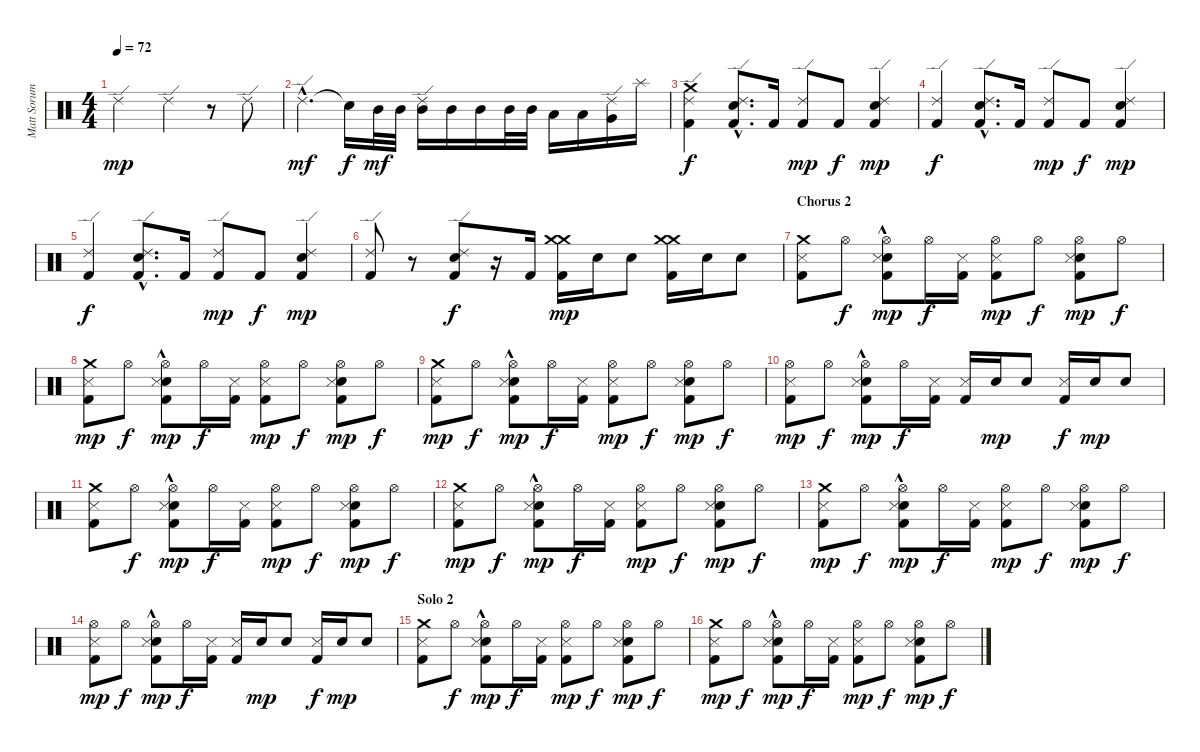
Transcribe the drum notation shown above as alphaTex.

\track ("Matt Sorum" "Matt Sorum") {instrument percussion}
\staff {score}
\articulation defaults
\ts (4 4)
\tempo 72
\clef neutral
\ks c "Ride (edge) 2".2{dy mp} "Ride (edge) 2".4
r.8 "Ride (edge) 2".8 |
"Ride (edge) 2"{hac}.4{d dy mf} "Snare (hit)"{t}.16{dy f} "Mid Tom (hit)".32{dy mf} "Mid Tom (hit)".32 ("Mid Tom (hit)" "Ride (edge) 2").16 "Mid Tom (hit)".16 "Mid Tom (hit)".16 "Mid Tom (hit)".32 "Mid Tom (hit)".32 "Low Tom (hit)".16 "Low Tom (hit)".16 ("Very Low Tom (hit)" "Ride (edge) 2").16 "Splash (hit)".16 |
("Ride (edge) 2" "Kick (hit) 2" "Crash medium (hit)").4{dy f} ("Snare (hit) 2"{hac} "Ride (edge) 2"{hac} "Kick (hit) 2"{hac}).8{d} "Kick (hit) 2".16 ("Ride (edge) 2" "Kick (hit) 2").8{dy mp} "Kick (hit) 2".8{dy f} ("Snare (hit) 2" "Ride (edge) 2" "Kick (hit) 2").4{dy mp} |
("Ride (edge) 2" "Kick (hit) 2").4{dy f} ("Snare (hit) 2"{hac} "Ride (edge) 2"{hac} "Kick (hit) 2"{hac}).8{d} "Kick (hit) 2".16 ("Ride (edge) 2" "Kick (hit) 2").8{dy mp} "Kick (hit) 2".8{dy f} ("Snare (hit) 2" "Ride (edge) 2" "Kick (hit) 2").4{dy mp} |
("Ride (edge) 2" "Kick (hit) 2").4{dy f} ("Snare (hit) 2"{hac} "Ride (edge) 2"{hac} "Kick (hit) 2"{hac}).8{d} "Kick (hit) 2".16 ("Ride (edge) 2" "Kick (hit) 2").8{dy mp} "Kick (hit) 2".8{dy f} ("Snare (hit) 2" "Ride (edge) 2" "Kick (hit) 2").4{dy mp} |
("Ride (edge) 2" "Kick (hit) 2").8 r.8 ("Snare (hit) 2" "Ride (edge) 2" "Kick (hit) 2").8{dy f} r.16 "Kick (hit) 2".16 ("Crash medium (hit)" "Kick (hit) 2" "Crash medium (hit)").16{dy mp} "Snare (hit) 2".16 "Snare (hit) 2".8 ("Crash medium (hit)" "Kick (hit) 2" "Crash medium (hit)").16 "Snare (hit) 2".16 "Snare (hit) 2".8 |
\section ("" "Chorus 2")
("Metronome (hit)" "Kick (hit) 2" "Crash medium (hit)").8 "Hi-Hat (open)".8{dy f} ("Snare (hit) 2" "Hi-Hat (open)" "Metronome (hit)"{hac} "Kick (hit) 2").8{dy mp} "Hi-Hat (open)".16{dy f} ("Metronome (hit)" "Kick (hit) 2").16 ("Hi-Hat (open)" "Metronome (hit)" "Kick (hit) 2").8{dy mp} "Hi-Hat (open)".8{dy f} ("Snare (hit) 2" "Hi-Hat (open)" "Metronome (hit)" "Kick (hit) 2").8{dy mp} "Hi-Hat (open)".8{dy f} |
("Metronome (hit)" "Kick (hit) 2" "Crash medium (hit)").8{dy mp} "Hi-Hat (open)".8{dy f} ("Snare (hit) 2" "Hi-Hat (open)" "Metronome (hit)"{hac} "Kick (hit) 2").8{dy mp} "Hi-Hat (open)".16{dy f} ("Metronome (hit)" "Kick (hit) 2").16 ("Hi-Hat (open)" "Metronome (hit)" "Kick (hit) 2").8{dy mp} "Hi-Hat (open)".8{dy f} ("Snare (hit) 2" "Hi-Hat (open)" "Metronome (hit)" "Kick (hit) 2").8{dy mp} "Hi-Hat (open)".8{dy f} |
("Metronome (hit)" "Kick (hit) 2" "Crash medium (hit)").8{dy mp} "Hi-Hat (open)".8{dy f} ("Snare (hit) 2" "Hi-Hat (open)" "Metronome (hit)"{hac} "Kick (hit) 2").8{dy mp} "Hi-Hat (open)".16{dy f} ("Metronome (hit)" "Kick (hit) 2").16 ("Hi-Hat (open)" "Metronome (hit)" "Kick (hit) 2").8{dy mp} "Hi-Hat (open)".8{dy f} ("Snare (hit) 2" "Hi-Hat (open)" "Metronome (hit)" "Kick (hit) 2").8{dy mp} "Hi-Hat (open)".8{dy f} |
("Hi-Hat (open)" "Metronome (hit)" "Kick (hit) 2").8{dy mp} "Hi-Hat (open)".8{dy f} ("Snare (hit) 2" "Hi-Hat (open)" "Metronome (hit)"{hac} "Kick (hit) 2"{hac}).8{dy mp} "Hi-Hat (open)".16{dy f} ("Metronome (hit)" "Kick (hit) 2").16 ("Metronome (hit)" "Kick (hit) 2").16 "Snare (hit) 2".16{dy mp} "Snare (hit) 2".8 ("Metronome (hit)" "Kick (hit) 2").16{dy f} "Snare (hit) 2".16{dy mp} "Snare (hit) 2".8 |
("Metronome (hit)" "Kick (hit) 2" "Crash medium (hit)").8 "Hi-Hat (open)".8{dy f} ("Snare (hit) 2" "Hi-Hat (open)" "Metronome (hit)"{hac} "Kick (hit) 2").8{dy mp} "Hi-Hat (open)".16{dy f} ("Metronome (hit)" "Kick (hit) 2").16 ("Hi-Hat (open)" "Metronome (hit)" "Kick (hit) 2").8{dy mp} "Hi-Hat (open)".8{dy f} ("Snare (hit) 2" "Hi-Hat (open)" "Metronome (hit)" "Kick (hit) 2").8{dy mp} "Hi-Hat (open)".8{dy f} |
("Metronome (hit)" "Kick (hit) 2" "Crash medium (hit)").8{dy mp} "Hi-Hat (open)".8{dy f} ("Snare (hit) 2" "Hi-Hat (open)" "Metronome (hit)"{hac} "Kick (hit) 2").8{dy mp} "Hi-Hat (open)".16{dy f} ("Metronome (hit)" "Kick (hit) 2").16 ("Hi-Hat (open)" "Metronome (hit)" "Kick (hit) 2").8{dy mp} "Hi-Hat (open)".8{dy f} ("Snare (hit) 2" "Hi-Hat (open)" "Metronome (hit)" "Kick (hit) 2").8{dy mp} "Hi-Hat (open)".8{dy f} |
("Metronome (hit)" "Kick (hit) 2" "Crash medium (hit)").8{dy mp} "Hi-Hat (open)".8{dy f} ("Snare (hit) 2" "Hi-Hat (open)" "Metronome (hit)"{hac} "Kick (hit) 2").8{dy mp} "Hi-Hat (open)".16{dy f} ("Metronome (hit)" "Kick (hit) 2").16 ("Hi-Hat (open)" "Metronome (hit)" "Kick (hit) 2").8{dy mp} "Hi-Hat (open)".8{dy f} ("Snare (hit) 2" "Hi-Hat (open)" "Metronome (hit)" "Kick (hit) 2").8{dy mp} "Hi-Hat (open)".8{dy f} |
("Hi-Hat (open)" "Metronome (hit)" "Kick (hit) 2").8{dy mp} "Hi-Hat (open)".8{dy f} ("Snare (hit) 2" "Hi-Hat (open)" "Metronome (hit)"{hac} "Kick (hit) 2"{hac}).8{dy mp} "Hi-Hat (open)".16{dy f} ("Metronome (hit)" "Kick (hit) 2").16 ("Metronome (hit)" "Kick (hit) 2").16 "Snare (hit) 2".16{dy mp} "Snare (hit) 2".8 ("Metronome (hit)" "Kick (hit) 2").16{dy f} "Snare (hit) 2".16{dy mp} "Snare (hit) 2".8 |
\section ("" "Solo 2")
("Metronome (hit)" "Kick (hit) 2" "Crash medium (hit)").8 "Hi-Hat (open)".8{dy f} ("Snare (hit) 2" "Hi-Hat (open)" "Metronome (hit)"{hac} "Kick (hit) 2").8{dy mp} "Hi-Hat (open)".16{dy f} ("Metronome (hit)" "Kick (hit) 2").16 ("Hi-Hat (open)" "Metronome (hit)" "Kick (hit) 2").8{dy mp} "Hi-Hat (open)".8{dy f} ("Snare (hit) 2" "Hi-Hat (open)" "Metronome (hit)" "Kick (hit) 2").8{dy mp} "Hi-Hat (open)".8{dy f} |
("Metronome (hit)" "Kick (hit) 2" "Crash medium (hit)").8{dy mp} "Hi-Hat (open)".8{dy f} ("Snare (hit) 2" "Hi-Hat (open)" "Metronome (hit)"{hac} "Kick (hit) 2").8{dy mp} "Hi-Hat (open)".16{dy f} ("Metronome (hit)" "Kick (hit) 2").16 ("Hi-Hat (open)" "Metronome (hit)" "Kick (hit) 2").8{dy mp} "Hi-Hat (open)".8{dy f} ("Snare (hit) 2" "Hi-Hat (open)" "Metronome (hit)" "Kick (hit) 2").8{dy mp} "Hi-Hat (open)".8{dy f}
